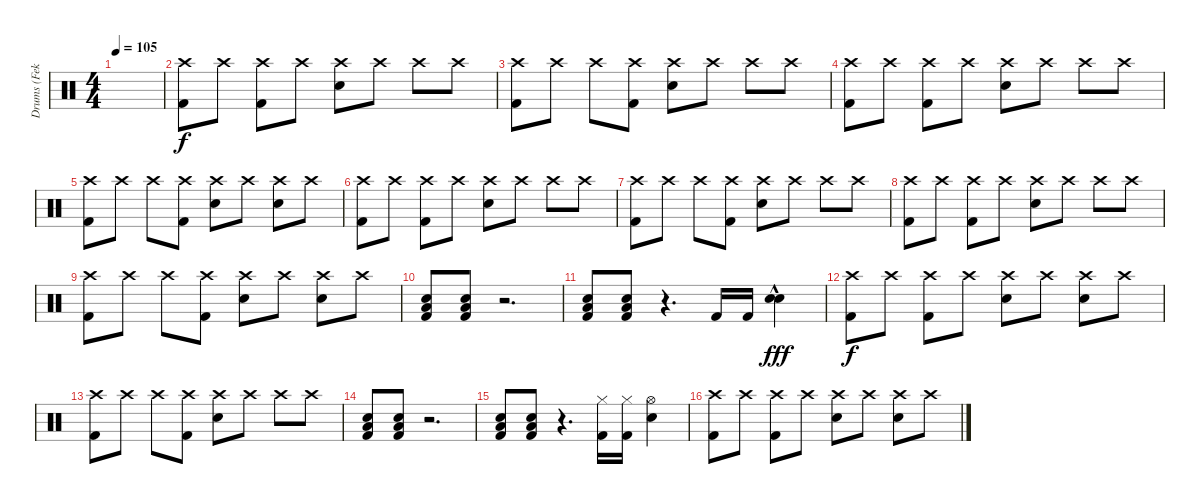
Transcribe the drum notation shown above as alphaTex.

\track ("Drums (Fekete 'Feka' Balázs)" "Drums (Fek") {instrument percussion}
\staff {score}
\articulation defaults
\ts (4 4)
\tempo 105
\clef neutral
\ks c
|
("Crash high (hit)" "Kick (hit) 2").8 "Crash high (hit)".8 ("Crash high (hit)" "Kick (hit) 2").8 "Crash high (hit)".8 ("Crash high (hit)" "Snare (hit) 2").8 "Crash high (hit)".8 "Crash high (hit)".8 "Crash high (hit)".8 |
("Crash high (hit)" "Kick (hit) 2").8 "Crash high (hit)".8 "Crash high (hit)".8 ("Crash high (hit)" "Kick (hit) 2").8 ("Crash high (hit)" "Snare (hit) 2").8 "Crash high (hit)".8 "Crash high (hit)".8 "Crash high (hit)".8 |
("Crash high (hit)" "Kick (hit) 2").8 "Crash high (hit)".8 ("Crash high (hit)" "Kick (hit) 2").8 "Crash high (hit)".8 ("Crash high (hit)" "Snare (hit) 2").8 "Crash high (hit)".8 "Crash high (hit)".8 "Crash high (hit)".8 |
("Crash high (hit)" "Kick (hit) 2").8 "Crash high (hit)".8 "Crash high (hit)".8 ("Crash high (hit)" "Kick (hit) 2").8 ("Crash high (hit)" "Snare (hit) 2").8 "Crash high (hit)".8 ("Crash high (hit)" "Snare (hit) 2").8 "Crash high (hit)".8 |
("Crash high (hit)" "Kick (hit) 2").8 "Crash high (hit)".8 ("Crash high (hit)" "Kick (hit) 2").8 "Crash high (hit)".8 ("Crash high (hit)" "Snare (hit) 2").8 "Crash high (hit)".8 "Crash high (hit)".8 "Crash high (hit)".8 |
("Crash high (hit)" "Kick (hit) 2").8 "Crash high (hit)".8 "Crash high (hit)".8 ("Crash high (hit)" "Kick (hit) 2").8 ("Crash high (hit)" "Snare (hit) 2").8 "Crash high (hit)".8 "Crash high (hit)".8 "Crash high (hit)".8 |
("Crash high (hit)" "Kick (hit) 2").8 "Crash high (hit)".8 ("Crash high (hit)" "Kick (hit) 2").8 "Crash high (hit)".8 ("Crash high (hit)" "Snare (hit) 2").8 "Crash high (hit)".8 "Crash high (hit)".8 "Crash high (hit)".8 |
("Crash high (hit)" "Kick (hit) 2").8 "Crash high (hit)".8 "Crash high (hit)".8 ("Crash high (hit)" "Kick (hit) 2").8 ("Crash high (hit)" "Snare (hit) 2").8 "Crash high (hit)".8 ("Crash high (hit)" "Snare (hit) 2").8 "Crash high (hit)".8 |
("Snare (hit) 2" "Low Tom (hit)" "Kick (hit) 2").8 ("Snare (hit) 2" "Low Tom (hit)" "Kick (hit) 2").8 r.2{d} |
("Snare (hit) 2" "Low Tom (hit)" "Kick (hit) 2").8 ("Snare (hit) 2" "Low Tom (hit)" "Kick (hit) 2").8 r.4{d} "Kick (hit) 2".16 "Kick (hit) 2".16 ("Snare (hit) 2"{hac} "Snare (hit) 2"{hac}).4{dy fff} |
("Crash high (hit)" "Kick (hit) 2").8{dy f} "Crash high (hit)".8 ("Crash high (hit)" "Kick (hit) 2").8 "Crash high (hit)".8 ("Crash high (hit)" "Snare (hit) 2").8 "Crash high (hit)".8 ("Crash high (hit)" "Snare (hit) 2").8 "Crash high (hit)".8 |
("Crash high (hit)" "Kick (hit) 2").8 "Crash high (hit)".8 "Crash high (hit)".8 ("Crash high (hit)" "Kick (hit) 2").8 ("Crash high (hit)" "Snare (hit) 2").8 "Crash high (hit)".8 "Crash high (hit)".8 "Crash high (hit)".8 |
("Snare (hit) 2" "Low Tom (hit)" "Kick (hit) 2").8 ("Snare (hit) 2" "Low Tom (hit)" "Kick (hit) 2").8 r.2{d} |
("Snare (hit) 2" "Low Tom (hit)" "Kick (hit) 2").8 ("Snare (hit) 2" "Low Tom (hit)" "Kick (hit) 2").8 r.4{d} ("Hi-Hat (closed)" "Kick (hit) 2").16 ("Hi-Hat (closed)" "Kick (hit) 2").16 ("Hi-Hat (open)" "Snare (hit) 2").4 |
("Crash high (hit)" "Kick (hit) 2").8 "Crash high (hit)".8 ("Crash high (hit)" "Kick (hit) 2").8 "Crash high (hit)".8 ("Crash high (hit)" "Snare (hit) 2").8 "Crash high (hit)".8 ("Crash high (hit)" "Snare (hit) 2").8 "Crash high (hit)".8
